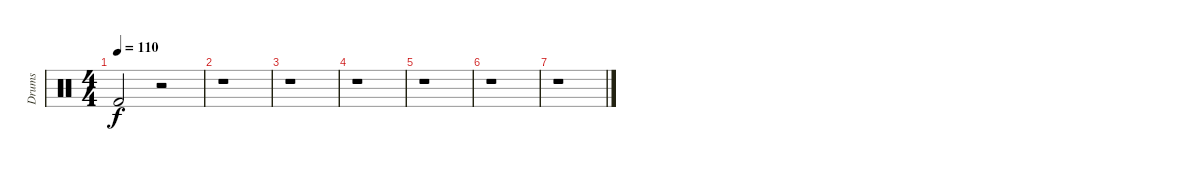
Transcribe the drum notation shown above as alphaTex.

\track ("Drums" "Drums") {instrument percussion}
\staff {score}
\articulation defaults
\ts (4 4)
\tempo 110
\clef neutral
\ks c "Kick (hit) 2".2{dy f}
r.2 |
r.1 |
r.1 |
r.1 |
r.1 |
r.1 |
r.1
